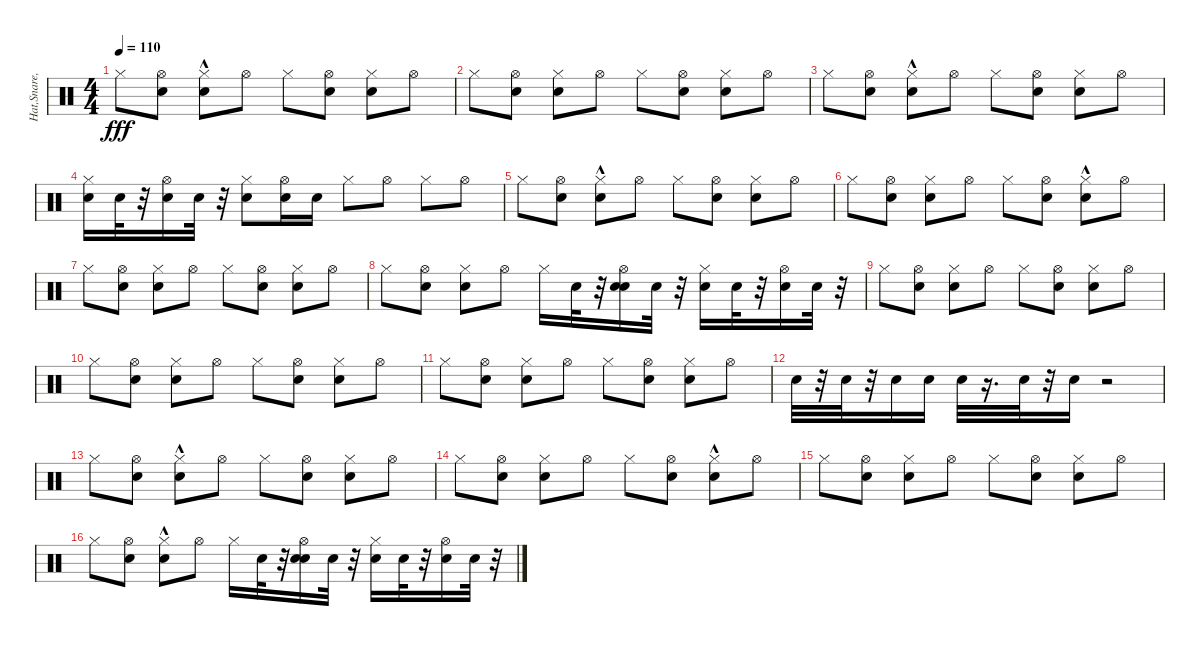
\track ("Hat,Snare,Clap" "Hat,Snare,") {instrument percussion}
\staff {score}
\articulation defaults
\ts (4 4)
\tempo 110
\clef neutral
\ks c "Hi-Hat (closed)".8{dy fff}
("Hi-Hat (open)" "Electric Snare (hit)").8 ("Hi-Hat (closed)" "Hand Clap (hit)"{hac}).8 "Hi-Hat (open)".8 "Hi-Hat (closed)".8 ("Hi-Hat (open)" "Electric Snare (hit)").8 ("Hi-Hat (closed)" "Hand Clap (hit)").8 "Hi-Hat (open)".8 |
"Hi-Hat (closed)".8 ("Hi-Hat (open)" "Electric Snare (hit)").8 ("Hi-Hat (closed)" "Hand Clap (hit)").8 "Hi-Hat (open)".8 "Hi-Hat (closed)".8 ("Hi-Hat (open)" "Electric Snare (hit)").8 ("Hi-Hat (closed)" "Hand Clap (hit)").8 "Hi-Hat (open)".8 |
"Hi-Hat (closed)".8 ("Hi-Hat (open)" "Electric Snare (hit)").8 ("Hi-Hat (closed)" "Hand Clap (hit)"{hac}).8 "Hi-Hat (open)".8 "Hi-Hat (closed)".8 ("Hi-Hat (open)" "Electric Snare (hit)").8 ("Hi-Hat (closed)" "Hand Clap (hit)").8 "Hi-Hat (open)".8 |
("Hi-Hat (closed)" "Electric Snare (hit)").16 "Electric Snare (hit)".32 r.32 ("Hi-Hat (open)" "Electric Snare (hit)").16 "Electric Snare (hit)".32 r.32 ("Hi-Hat (closed)" "Electric Snare (hit)").8 ("Hi-Hat (open)" "Electric Snare (hit)").16 "Electric Snare (hit)".16 "Hi-Hat (closed)".8 "Hi-Hat (open)".8 "Hi-Hat (closed)".8 "Hi-Hat (open)".8 |
"Hi-Hat (closed)".8 ("Hi-Hat (open)" "Electric Snare (hit)").8 ("Hi-Hat (closed)" "Hand Clap (hit)"{hac}).8 "Hi-Hat (open)".8 "Hi-Hat (closed)".8 ("Hi-Hat (open)" "Electric Snare (hit)").8 ("Hi-Hat (closed)" "Hand Clap (hit)").8 "Hi-Hat (open)".8 |
"Hi-Hat (closed)".8 ("Hi-Hat (open)" "Electric Snare (hit)").8 ("Hi-Hat (closed)" "Hand Clap (hit)").8 "Hi-Hat (open)".8 "Hi-Hat (closed)".8 ("Hi-Hat (open)" "Electric Snare (hit)").8 ("Hi-Hat (closed)" "Hand Clap (hit)"{hac}).8 "Hi-Hat (open)".8 |
"Hi-Hat (closed)".8 ("Hi-Hat (open)" "Electric Snare (hit)").8 ("Hi-Hat (closed)" "Hand Clap (hit)").8 "Hi-Hat (open)".8 "Hi-Hat (closed)".8 ("Hi-Hat (open)" "Electric Snare (hit)").8 ("Hand Clap (hit)" "Hi-Hat (closed)").8 "Hi-Hat (open)".8 |
"Hi-Hat (closed)".8 ("Hi-Hat (open)" "Electric Snare (hit)").8 ("Hi-Hat (closed)" "Hand Clap (hit)").8 "Hi-Hat (open)".8 "Hi-Hat (closed)".16 "Electric Snare (hit)".32 r.32 ("Hi-Hat (open)" "Electric Snare (hit)" "Electric Snare (hit)").16 "Electric Snare (hit)".32 r.32 ("Hi-Hat (closed)" "Hand Clap (hit)").16 "Electric Snare (hit)".32 r.32 ("Hi-Hat (open)" "Electric Snare (hit)").16 "Electric Snare (hit)".32 r.32 |
"Hi-Hat (closed)".8 ("Hi-Hat (open)" "Electric Snare (hit)").8 ("Hi-Hat (closed)" "Hand Clap (hit)").8 "Hi-Hat (open)".8 "Hi-Hat (closed)".8 ("Hi-Hat (open)" "Electric Snare (hit)").8 ("Hi-Hat (closed)" "Hand Clap (hit)").8 "Hi-Hat (open)".8 |
"Hi-Hat (closed)".8 ("Hi-Hat (open)" "Electric Snare (hit)").8 ("Hi-Hat (closed)" "Hand Clap (hit)").8 "Hi-Hat (open)".8 "Hi-Hat (closed)".8 ("Hi-Hat (open)" "Electric Snare (hit)").8 ("Hi-Hat (closed)" "Hand Clap (hit)").8 "Hi-Hat (open)".8 |
"Hi-Hat (closed)".8 ("Hi-Hat (open)" "Electric Snare (hit)").8 ("Hi-Hat (closed)" "Hand Clap (hit)").8 "Hi-Hat (open)".8 "Hi-Hat (closed)".8 ("Hi-Hat (open)" "Electric Snare (hit)").8 ("Hi-Hat (closed)" "Hand Clap (hit)").8 "Hi-Hat (open)".8 |
"Electric Snare (hit)".32 r.32 "Electric Snare (hit)".32 r.32 "Electric Snare (hit)".16 "Electric Snare (hit)".16 "Electric Snare (hit)".32 r.16{d} "Electric Snare (hit)".32 r.32 "Electric Snare (hit)".16 r.2 |
"Hi-Hat (closed)".8 ("Hi-Hat (open)" "Electric Snare (hit)").8 ("Hi-Hat (closed)" "Hand Clap (hit)"{hac}).8 "Hi-Hat (open)".8 "Hi-Hat (closed)".8 ("Hi-Hat (open)" "Electric Snare (hit)").8 ("Hi-Hat (closed)" "Hand Clap (hit)").8 "Hi-Hat (open)".8 |
"Hi-Hat (closed)".8 ("Hi-Hat (open)" "Electric Snare (hit)").8 ("Hi-Hat (closed)" "Hand Clap (hit)").8 "Hi-Hat (open)".8 "Hi-Hat (closed)".8 ("Hi-Hat (open)" "Electric Snare (hit)").8 ("Hi-Hat (closed)" "Hand Clap (hit)"{hac}).8 "Hi-Hat (open)".8 |
"Hi-Hat (closed)".8 ("Hi-Hat (open)" "Electric Snare (hit)").8 ("Hi-Hat (closed)" "Hand Clap (hit)").8 "Hi-Hat (open)".8 "Hi-Hat (closed)".8 ("Hi-Hat (open)" "Electric Snare (hit)").8 ("Hi-Hat (closed)" "Hand Clap (hit)").8 "Hi-Hat (open)".8 |
"Hi-Hat (closed)".8 ("Hi-Hat (open)" "Electric Snare (hit)").8 ("Hi-Hat (closed)" "Hand Clap (hit)"{hac}).8 "Hi-Hat (open)".8 "Hi-Hat (closed)".16 "Electric Snare (hit)".32 r.32 ("Hi-Hat (open)" "Electric Snare (hit)" "Electric Snare (hit)").16 "Electric Snare (hit)".32 r.32 ("Hi-Hat (closed)" "Hand Clap (hit)").16 "Electric Snare (hit)".32 r.32 ("Hi-Hat (open)" "Electric Snare (hit)").16 "Electric Snare (hit)".32 r.32
